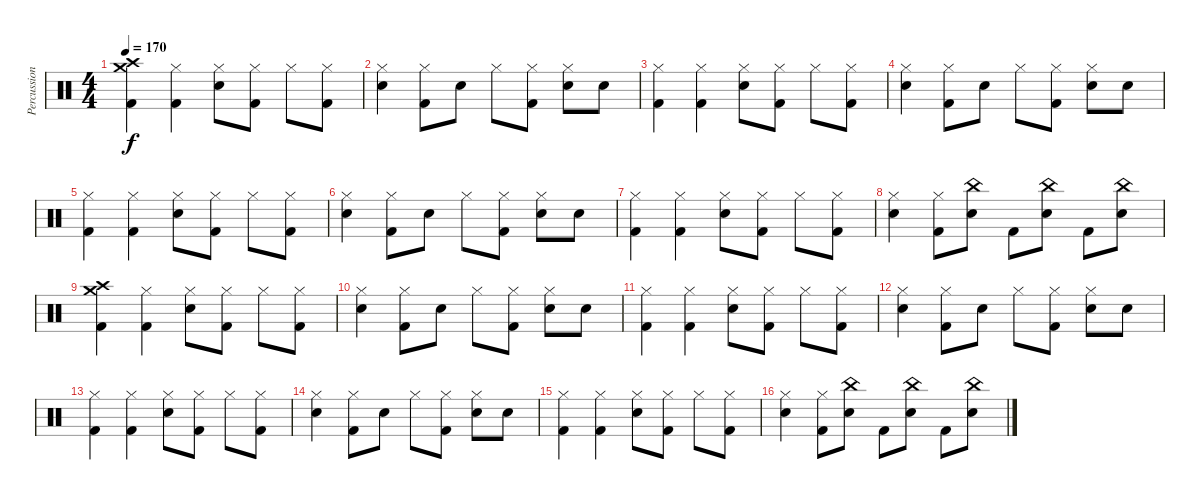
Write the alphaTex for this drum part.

\track ("Percussions" "Percussion") {instrument percussion}
\staff {score}
\articulation defaults
\ts (4 4)
\tempo 170
\clef neutral
\ks c
("Crash medium (hit)" "Crash high (hit)" "Kick (hit) 2").4{dy f} ("Hi-Hat (closed)" "Kick (hit) 2").4 ("Hi-Hat (closed)" "Electric Snare (hit)").8 ("Hi-Hat (closed)" "Kick (hit) 2").8 "Hi-Hat (closed)".8 ("Hi-Hat (closed)" "Kick (hit) 2").8 |
("Hi-Hat (closed)" "Electric Snare (hit)").4 ("Hi-Hat (closed)" "Kick (hit) 2").8 "Electric Snare (hit)".8 "Hi-Hat (closed)".8 ("Hi-Hat (closed)" "Kick (hit) 2").8 ("Hi-Hat (closed)" "Electric Snare (hit)").8 "Electric Snare (hit)".8 |
("Hi-Hat (closed)" "Kick (hit) 2").4 ("Hi-Hat (closed)" "Kick (hit) 2").4 ("Hi-Hat (closed)" "Electric Snare (hit)").8 ("Hi-Hat (closed)" "Kick (hit) 2").8 "Hi-Hat (closed)".8 ("Hi-Hat (closed)" "Kick (hit) 2").8 |
("Hi-Hat (closed)" "Electric Snare (hit)").4 ("Hi-Hat (closed)" "Kick (hit) 2").8 "Electric Snare (hit)".8 "Hi-Hat (closed)".8 ("Hi-Hat (closed)" "Kick (hit) 2").8 ("Hi-Hat (closed)" "Electric Snare (hit)").8 "Electric Snare (hit)".8 |
("Hi-Hat (closed)" "Kick (hit) 2").4 ("Hi-Hat (closed)" "Kick (hit) 2").4 ("Hi-Hat (closed)" "Electric Snare (hit)").8 ("Hi-Hat (closed)" "Kick (hit) 2").8 "Hi-Hat (closed)".8 ("Hi-Hat (closed)" "Kick (hit) 2").8 |
("Hi-Hat (closed)" "Electric Snare (hit)").4 ("Hi-Hat (closed)" "Kick (hit) 2").8 "Electric Snare (hit)".8 "Hi-Hat (closed)".8 ("Hi-Hat (closed)" "Kick (hit) 2").8 ("Hi-Hat (closed)" "Electric Snare (hit)").8 "Electric Snare (hit)".8 |
("Hi-Hat (closed)" "Kick (hit) 2").4 ("Hi-Hat (closed)" "Kick (hit) 2").4 ("Hi-Hat (closed)" "Electric Snare (hit)").8 ("Hi-Hat (closed)" "Kick (hit) 2").8 "Hi-Hat (closed)".8 ("Hi-Hat (closed)" "Kick (hit) 2").8 |
("Hi-Hat (closed)" "Electric Snare (hit)").4 ("Hi-Hat (closed)" "Kick (hit) 2").8 ("China (hit)" "Electric Snare (hit)").8 "Kick (hit) 2".8 ("China (hit)" "Electric Snare (hit)").8 "Kick (hit) 2".8 ("China (hit)" "Electric Snare (hit)").8 |
("Crash medium (hit)" "Crash high (hit)" "Kick (hit) 2").4 ("Hi-Hat (closed)" "Kick (hit) 2").4 ("Hi-Hat (closed)" "Electric Snare (hit)").8 ("Hi-Hat (closed)" "Kick (hit) 2").8 "Hi-Hat (closed)".8 ("Hi-Hat (closed)" "Kick (hit) 2").8 |
("Hi-Hat (closed)" "Electric Snare (hit)").4 ("Hi-Hat (closed)" "Kick (hit) 2").8 "Electric Snare (hit)".8 "Hi-Hat (closed)".8 ("Hi-Hat (closed)" "Kick (hit) 2").8 ("Hi-Hat (closed)" "Electric Snare (hit)").8 "Electric Snare (hit)".8 |
("Hi-Hat (closed)" "Kick (hit) 2").4 ("Hi-Hat (closed)" "Kick (hit) 2").4 ("Hi-Hat (closed)" "Electric Snare (hit)").8 ("Hi-Hat (closed)" "Kick (hit) 2").8 "Hi-Hat (closed)".8 ("Hi-Hat (closed)" "Kick (hit) 2").8 |
("Hi-Hat (closed)" "Electric Snare (hit)").4 ("Hi-Hat (closed)" "Kick (hit) 2").8 "Electric Snare (hit)".8 "Hi-Hat (closed)".8 ("Hi-Hat (closed)" "Kick (hit) 2").8 ("Hi-Hat (closed)" "Electric Snare (hit)").8 "Electric Snare (hit)".8 |
("Hi-Hat (closed)" "Kick (hit) 2").4 ("Hi-Hat (closed)" "Kick (hit) 2").4 ("Hi-Hat (closed)" "Electric Snare (hit)").8 ("Hi-Hat (closed)" "Kick (hit) 2").8 "Hi-Hat (closed)".8 ("Hi-Hat (closed)" "Kick (hit) 2").8 |
("Hi-Hat (closed)" "Electric Snare (hit)").4 ("Hi-Hat (closed)" "Kick (hit) 2").8 "Electric Snare (hit)".8 "Hi-Hat (closed)".8 ("Hi-Hat (closed)" "Kick (hit) 2").8 ("Hi-Hat (closed)" "Electric Snare (hit)").8 "Electric Snare (hit)".8 |
("Hi-Hat (closed)" "Kick (hit) 2").4 ("Hi-Hat (closed)" "Kick (hit) 2").4 ("Hi-Hat (closed)" "Electric Snare (hit)").8 ("Hi-Hat (closed)" "Kick (hit) 2").8 "Hi-Hat (closed)".8 ("Hi-Hat (closed)" "Kick (hit) 2").8 |
("Hi-Hat (closed)" "Electric Snare (hit)").4 ("Hi-Hat (closed)" "Kick (hit) 2").8 ("China (hit)" "Electric Snare (hit)").8 "Kick (hit) 2".8 ("China (hit)" "Electric Snare (hit)").8 "Kick (hit) 2".8 ("China (hit)" "Electric Snare (hit)").8
